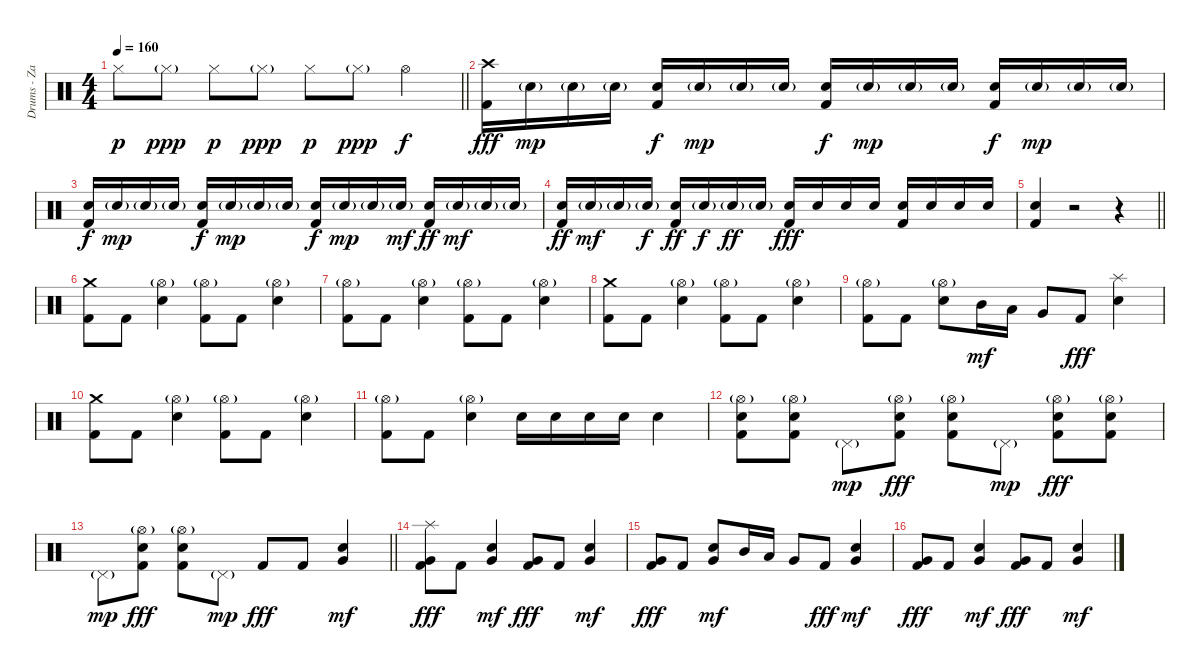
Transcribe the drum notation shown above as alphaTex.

\track ("Drums - Zac Farro" "Drums - Za") {instrument percussion}
\staff {score}
\articulation defaults
\ts (4 4)
\tempo 160
\clef neutral
\barLineRight lightlight
\ks c "Hi-Hat (closed)".8{dy p} "Hi-Hat (closed)"{g}.8{dy ppp} "Hi-Hat (closed)".8{dy p} "Hi-Hat (closed)"{g}.8{dy ppp} "Hi-Hat (closed)".8{dy p} "Hi-Hat (closed)"{g}.8{dy ppp} "Hi-Hat (open)".4{dy f}
|
("Crash high (hit)" "Kick (hit) 2").16{dy fff} "Electric Snare (hit)"{g}.16{dy mp} "Electric Snare (hit)"{g}.16 "Electric Snare (hit)"{g}.16 ("Electric Snare (hit)" "Kick (hit) 2").16{dy f} "Electric Snare (hit)"{g}.16{dy mp} "Electric Snare (hit)"{g}.16 "Electric Snare (hit)"{g}.16 ("Electric Snare (hit)" "Kick (hit) 2").16{dy f} "Electric Snare (hit)"{g}.16{dy mp} "Electric Snare (hit)"{g}.16 "Electric Snare (hit)"{g}.16 ("Electric Snare (hit)" "Kick (hit) 2").16{dy f} "Electric Snare (hit)"{g}.16{dy mp} "Electric Snare (hit)"{g}.16 "Electric Snare (hit)"{g}.16 |
("Electric Snare (hit)" "Kick (hit) 2").16{dy f} "Electric Snare (hit)"{g}.16{dy mp} "Electric Snare (hit)"{g}.16 "Electric Snare (hit)"{g}.16 ("Electric Snare (hit)" "Kick (hit) 2").16{dy f} "Electric Snare (hit)"{g}.16{dy mp} "Electric Snare (hit)"{g}.16 "Electric Snare (hit)"{g}.16 ("Electric Snare (hit)" "Kick (hit) 2").16{dy f} "Electric Snare (hit)"{g}.16{dy mp} "Electric Snare (hit)"{g}.16 "Electric Snare (hit)"{g}.16{dy mf} ("Electric Snare (hit)" "Kick (hit) 2").16{dy ff} "Electric Snare (hit)"{g}.16{dy mf} "Electric Snare (hit)"{g}.16 "Electric Snare (hit)"{g}.16 |
("Electric Snare (hit)" "Kick (hit) 2").16{dy ff} "Electric Snare (hit)"{g}.16{dy mf} "Electric Snare (hit)"{g}.16 "Electric Snare (hit)"{g}.16{dy f} ("Electric Snare (hit)" "Kick (hit) 2").16{dy ff} "Electric Snare (hit)"{g}.16{dy f} "Electric Snare (hit)"{g}.16{dy ff} "Electric Snare (hit)"{g}.16 ("Electric Snare (hit)" "Kick (hit) 2").16{dy fff} "Electric Snare (hit)".16 "Electric Snare (hit)".16 "Electric Snare (hit)".16 ("Electric Snare (hit)" "Kick (hit) 2").16 "Electric Snare (hit)".16 "Electric Snare (hit)".16 "Electric Snare (hit)".16 |
\barLineRight lightlight
("Electric Snare (hit)" "Kick (hit) 2").4 r.2 r.4 |
("Crash medium (hit)" "Kick (hit) 2").8 "Kick (hit) 2".8 ("Hi-Hat (open)"{g} "Electric Snare (hit)").4 ("Hi-Hat (open)"{g} "Kick (hit) 2").8 "Kick (hit) 2".8 ("Hi-Hat (open)"{g} "Electric Snare (hit)").4 |
("Hi-Hat (open)"{g} "Kick (hit) 2").8 "Kick (hit) 2".8 ("Hi-Hat (open)"{g} "Electric Snare (hit)").4 ("Hi-Hat (open)"{g} "Kick (hit) 2").8 "Kick (hit) 2".8 ("Hi-Hat (open)"{g} "Electric Snare (hit)").4 |
("Crash medium (hit)" "Kick (hit) 2").8 "Kick (hit) 2".8 ("Hi-Hat (open)"{g} "Electric Snare (hit)").4 ("Hi-Hat (open)"{g} "Kick (hit) 2").8 "Kick (hit) 2".8 ("Hi-Hat (open)"{g} "Electric Snare (hit)").4 |
("Hi-Hat (open)"{g} "Kick (hit) 2").8 "Kick (hit) 2".8 ("Hi-Hat (open)"{g} "Electric Snare (hit)").8 "Mid Tom (hit)".16{dy mf} "Low Tom (hit)".16 "Very Low Tom (hit)".8 "Kick (hit) 2".8{dy fff} ("Splash (hit)" "Electric Snare (hit)").4 |
("Crash medium (hit)" "Kick (hit) 2").8 "Kick (hit) 2".8 ("Hi-Hat (open)"{g} "Electric Snare (hit)").4 ("Hi-Hat (open)"{g} "Kick (hit) 2").8 "Kick (hit) 2".8 ("Hi-Hat (open)"{g} "Electric Snare (hit)").4 |
("Hi-Hat (open)"{g} "Kick (hit) 2").8 "Kick (hit) 2".8 ("Hi-Hat (open)"{g} "Electric Snare (hit)").4 "Electric Snare (hit)".16 "Electric Snare (hit)".16 "Electric Snare (hit)".16 "Electric Snare (hit)".16 "Electric Snare (hit)".4 |
("Hi-Hat (open)"{g} "Electric Snare (hit)" "Kick (hit) 2").8 ("Hi-Hat (open)"{g} "Electric Snare (hit)" "Kick (hit) 2").8 "Pedal Hi-Hat (hit)"{g}.8{dy mp} ("Hi-Hat (open)"{g} "Electric Snare (hit)" "Kick (hit) 2").8{dy fff} ("Hi-Hat (open)"{g} "Electric Snare (hit)" "Kick (hit) 2").8 "Pedal Hi-Hat (hit)"{g}.8{dy mp} ("Hi-Hat (open)"{g} "Electric Snare (hit)" "Kick (hit) 2").8{dy fff} ("Hi-Hat (open)"{g} "Electric Snare (hit)" "Kick (hit) 2").8 |
\barLineRight lightlight "Pedal Hi-Hat (hit)"{g}.8{dy mp}
("Hi-Hat (open)"{g} "Electric Snare (hit)" "Kick (hit) 2").8{dy fff} ("Hi-Hat (open)"{g} "Electric Snare (hit)" "Kick (hit) 2").8 "Pedal Hi-Hat (hit)"{g}.8{dy mp} "Kick (hit) 2".8{dy fff} "Kick (hit) 2".8 ("Electric Snare (hit)" "Very Low Tom (hit)").4{dy mf} |
("Splash (hit)" "Very Low Tom (hit)" "Kick (hit) 2").8{dy fff} "Kick (hit) 2".8 ("Electric Snare (hit)" "Very Low Tom (hit)").4{dy mf} ("Very Low Tom (hit)" "Kick (hit) 2").8{dy fff} "Kick (hit) 2".8 ("Electric Snare (hit)" "Very Low Tom (hit)").4{dy mf} |
("Very Low Tom (hit)" "Kick (hit) 2").8{dy fff} "Kick (hit) 2".8 ("Electric Snare (hit)" "Very Low Tom (hit)").8{dy mf} "Mid Tom (hit)".16 "Low Tom (hit)".16 "Very Low Tom (hit)".8 "Kick (hit) 2".8{dy fff} ("Electric Snare (hit)" "Very Low Tom (hit)").4{dy mf} |
("Very Low Tom (hit)" "Kick (hit) 2").8{dy fff} "Kick (hit) 2".8 ("Electric Snare (hit)" "Very Low Tom (hit)").4{dy mf} ("Very Low Tom (hit)" "Kick (hit) 2").8{dy fff} "Kick (hit) 2".8 ("Electric Snare (hit)" "Very Low Tom (hit)").4{dy mf}
